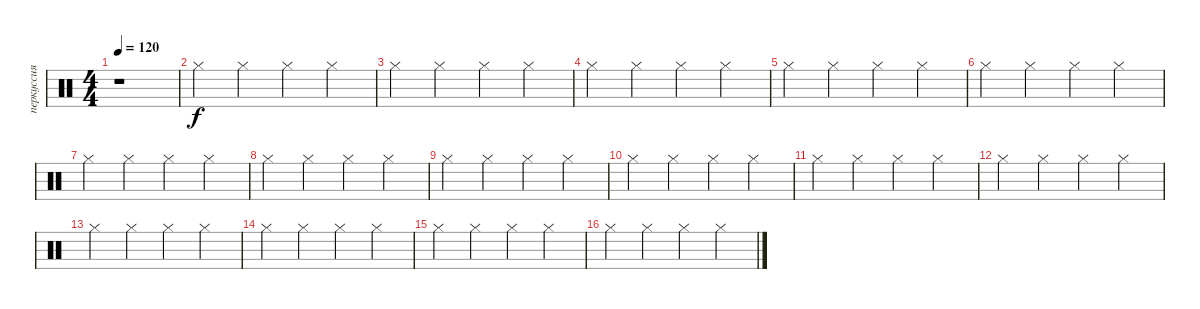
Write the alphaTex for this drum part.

\track ("перкуссия" "перкуссия") {instrument percussion}
\staff {score}
\articulation defaults
\ts (4 4)
\tempo 120
\clef neutral
\ks c
r.1{dy f} |
"Hi-Hat (closed)".4 "Hi-Hat (closed)".4 "Hi-Hat (closed)".4 "Hi-Hat (closed)".4 |
"Hi-Hat (closed)".4 "Hi-Hat (closed)".4 "Hi-Hat (closed)".4 "Hi-Hat (closed)".4 |
"Hi-Hat (closed)".4 "Hi-Hat (closed)".4 "Hi-Hat (closed)".4 "Hi-Hat (closed)".4 |
"Hi-Hat (closed)".4 "Hi-Hat (closed)".4 "Hi-Hat (closed)".4 "Hi-Hat (closed)".4 |
"Hi-Hat (closed)".4 "Hi-Hat (closed)".4 "Hi-Hat (closed)".4 "Hi-Hat (closed)".4 |
"Hi-Hat (closed)".4 "Hi-Hat (closed)".4 "Hi-Hat (closed)".4 "Hi-Hat (closed)".4 |
"Hi-Hat (closed)".4 "Hi-Hat (closed)".4 "Hi-Hat (closed)".4 "Hi-Hat (closed)".4 |
"Hi-Hat (closed)".4 "Hi-Hat (closed)".4 "Hi-Hat (closed)".4 "Hi-Hat (closed)".4 |
"Hi-Hat (closed)".4 "Hi-Hat (closed)".4 "Hi-Hat (closed)".4 "Hi-Hat (closed)".4 |
"Hi-Hat (closed)".4 "Hi-Hat (closed)".4 "Hi-Hat (closed)".4 "Hi-Hat (closed)".4 |
"Hi-Hat (closed)".4 "Hi-Hat (closed)".4 "Hi-Hat (closed)".4 "Hi-Hat (closed)".4 |
"Hi-Hat (closed)".4 "Hi-Hat (closed)".4 "Hi-Hat (closed)".4 "Hi-Hat (closed)".4 |
"Hi-Hat (closed)".4 "Hi-Hat (closed)".4 "Hi-Hat (closed)".4 "Hi-Hat (closed)".4 |
"Hi-Hat (closed)".4 "Hi-Hat (closed)".4 "Hi-Hat (closed)".4 "Hi-Hat (closed)".4 |
"Hi-Hat (closed)".4 "Hi-Hat (closed)".4 "Hi-Hat (closed)".4 "Hi-Hat (closed)".4
